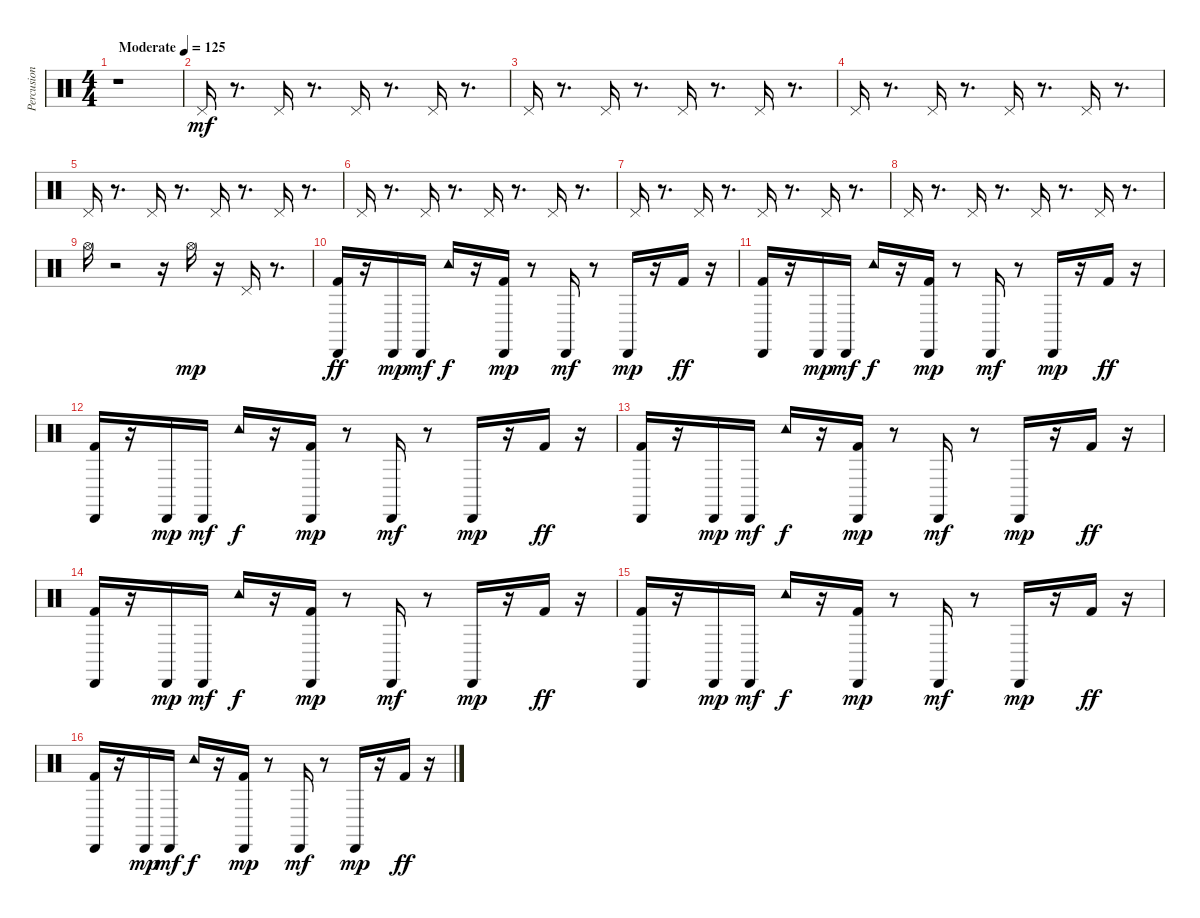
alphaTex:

\track ("Percusion" "Percusion") {instrument percussion}
\staff {score}
\articulation defaults
\ts (4 4)
\tempo (125 "Moderate")
\clef neutral
\ks c
r.1{dy mf} |
"Pedal Hi-Hat (hit)".16 r.8{d} "Pedal Hi-Hat (hit)".16 r.8{d} "Pedal Hi-Hat (hit)".16 r.8{d} "Pedal Hi-Hat (hit)".16 r.8{d} |
"Pedal Hi-Hat (hit)".16 r.8{d} "Pedal Hi-Hat (hit)".16 r.8{d} "Pedal Hi-Hat (hit)".16 r.8{d} "Pedal Hi-Hat (hit)".16 r.8{d} |
"Pedal Hi-Hat (hit)".16 r.8{d} "Pedal Hi-Hat (hit)".16 r.8{d} "Pedal Hi-Hat (hit)".16 r.8{d} "Pedal Hi-Hat (hit)".16 r.8{d} |
"Pedal Hi-Hat (hit)".16 r.8{d} "Pedal Hi-Hat (hit)".16 r.8{d} "Pedal Hi-Hat (hit)".16 r.8{d} "Pedal Hi-Hat (hit)".16 r.8{d} |
"Pedal Hi-Hat (hit)".16 r.8{d} "Pedal Hi-Hat (hit)".16 r.8{d} "Pedal Hi-Hat (hit)".16 r.8{d} "Pedal Hi-Hat (hit)".16 r.8{d} |
"Pedal Hi-Hat (hit)".16 r.8{d} "Pedal Hi-Hat (hit)".16 r.8{d} "Pedal Hi-Hat (hit)".16 r.8{d} "Pedal Hi-Hat (hit)".16 r.8{d} |
"Pedal Hi-Hat (hit)".16 r.8{d} "Pedal Hi-Hat (hit)".16 r.8{d} "Pedal Hi-Hat (hit)".16 r.8{d} "Pedal Hi-Hat (hit)".16 r.8{d} |
"Hi-Hat (open)".16 r.2 r.16 "Hi-Hat (open)".16{dy mp} r.16 "Pedal Hi-Hat (hit)".16 r.8{d} |
("Cabasa (hit)" "Kick (hit) 2").16{dy ff} r.16 "Cabasa (hit)".16{dy mp} "Cabasa (hit)".16{dy mf} "Tambourine (hit)".16{dy f} r.16 ("Kick (hit) 2" "Cabasa (hit)").16{dy mp} r.8 "Cabasa (hit)".16{dy mf} r.8 "Cabasa (hit)".16{dy mp} r.16 "Kick (hit) 2".16{dy ff} r.16 |
("Cabasa (hit)" "Kick (hit) 2").16 r.16 "Cabasa (hit)".16{dy mp} "Cabasa (hit)".16{dy mf} "Tambourine (hit)".16{dy f} r.16 ("Kick (hit) 2" "Cabasa (hit)").16{dy mp} r.8 "Cabasa (hit)".16{dy mf} r.8 "Cabasa (hit)".16{dy mp} r.16 "Kick (hit) 2".16{dy ff} r.16 |
("Cabasa (hit)" "Kick (hit) 2").16 r.16 "Cabasa (hit)".16{dy mp} "Cabasa (hit)".16{dy mf} "Tambourine (hit)".16{dy f} r.16 ("Kick (hit) 2" "Cabasa (hit)").16{dy mp} r.8 "Cabasa (hit)".16{dy mf} r.8 "Cabasa (hit)".16{dy mp} r.16 "Kick (hit) 2".16{dy ff} r.16 |
("Cabasa (hit)" "Kick (hit) 2").16 r.16 "Cabasa (hit)".16{dy mp} "Cabasa (hit)".16{dy mf} "Tambourine (hit)".16{dy f} r.16 ("Kick (hit) 2" "Cabasa (hit)").16{dy mp} r.8 "Cabasa (hit)".16{dy mf} r.8 "Cabasa (hit)".16{dy mp} r.16 "Kick (hit) 2".16{dy ff} r.16 |
("Cabasa (hit)" "Kick (hit) 2").16 r.16 "Cabasa (hit)".16{dy mp} "Cabasa (hit)".16{dy mf} "Tambourine (hit)".16{dy f} r.16 ("Kick (hit) 2" "Cabasa (hit)").16{dy mp} r.8 "Cabasa (hit)".16{dy mf} r.8 "Cabasa (hit)".16{dy mp} r.16 "Kick (hit) 2".16{dy ff} r.16 |
("Cabasa (hit)" "Kick (hit) 2").16 r.16 "Cabasa (hit)".16{dy mp} "Cabasa (hit)".16{dy mf} "Tambourine (hit)".16{dy f} r.16 ("Kick (hit) 2" "Cabasa (hit)").16{dy mp} r.8 "Cabasa (hit)".16{dy mf} r.8 "Cabasa (hit)".16{dy mp} r.16 "Kick (hit) 2".16{dy ff} r.16 |
("Cabasa (hit)" "Kick (hit) 2").16 r.16 "Cabasa (hit)".16{dy mp} "Cabasa (hit)".16{dy mf} "Tambourine (hit)".16{dy f} r.16 ("Kick (hit) 2" "Cabasa (hit)").16{dy mp} r.8 "Cabasa (hit)".16{dy mf} r.8 "Cabasa (hit)".16{dy mp} r.16 "Kick (hit) 2".16{dy ff} r.16
